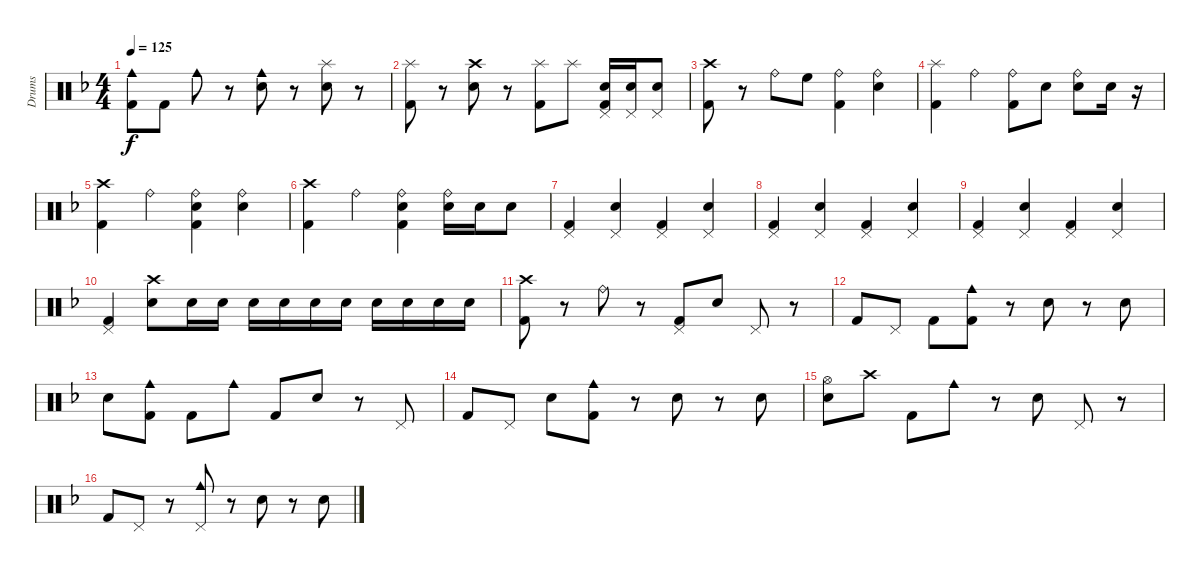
\track ("Drums" "Drums") {instrument percussion}
\staff {score}
\articulation defaults
\ts (4 4)
\tempo 125
\clef neutral
\ks f
("Cowbell medium (hit)" "Kick (hit) 2").8{dy f} "Kick (hit) 2".8 "Cowbell medium (hit)".8 r.8 ("Cowbell medium (hit)" "Electric Snare (hit)").8 r.8 ("Splash (hit)" "Electric Snare (hit)").8 r.8 |
("Splash (hit)" "Kick (hit) 2").8 r.8 ("Crash high (hit)" "Electric Snare (hit)").8 r.8 ("Splash (hit)" "Kick (hit) 2").8 "Splash (hit)".8 ("Pedal Hi-Hat (hit)" "Electric Snare (hit)" "Kick (hit) 2").16 ("Pedal Hi-Hat (hit)" "Electric Snare (hit)").16 ("Pedal Hi-Hat (hit)" "Electric Snare (hit)").8 |
("Crash high (hit)" "Kick (hit) 2").8 r.8 "Ride (bell)".8 "High Floor Tom (hit)".8 ("Ride (bell)" "Kick (hit) 2").4 ("Ride (bell)" "Electric Snare (hit)").4 |
("Splash (hit)" "Kick (hit) 2").4 "Ride (bell)".4 ("Ride (bell)" "Kick (hit) 2").8 "Electric Snare (hit)".8 ("Ride (bell)" "Electric Snare (hit)").8 "Electric Snare (hit)".16 r.16 |
("Crash high (hit)" "Kick (hit) 2").4 "Ride (bell)".4 ("Ride (bell)" "Electric Snare (hit)" "Kick (hit) 2").4 ("Ride (bell)" "Electric Snare (hit)").4 |
("Crash high (hit)" "Kick (hit) 2").4 "Ride (bell)".4 ("Ride (bell)" "Electric Snare (hit)" "Kick (hit) 2").4 ("Ride (bell)" "Electric Snare (hit)").16 "Electric Snare (hit)".16 "Electric Snare (hit)".8 |
("Pedal Hi-Hat (hit)" "Kick (hit) 2").4 ("Pedal Hi-Hat (hit)" "Electric Snare (hit)").4 ("Pedal Hi-Hat (hit)" "Kick (hit) 2").4 ("Pedal Hi-Hat (hit)" "Electric Snare (hit)").4 |
("Pedal Hi-Hat (hit)" "Kick (hit) 2").4 ("Pedal Hi-Hat (hit)" "Electric Snare (hit)").4 ("Pedal Hi-Hat (hit)" "Kick (hit) 2").4 ("Pedal Hi-Hat (hit)" "Electric Snare (hit)").4 |
("Pedal Hi-Hat (hit)" "Kick (hit) 2").4 ("Pedal Hi-Hat (hit)" "Electric Snare (hit)").4 ("Pedal Hi-Hat (hit)" "Kick (hit) 2").4 ("Pedal Hi-Hat (hit)" "Electric Snare (hit)").4 |
("Pedal Hi-Hat (hit)" "Kick (hit) 2").4 ("Crash high (hit)" "Electric Snare (hit)").8 "Electric Snare (hit)".16 "Electric Snare (hit)".16 "Electric Snare (hit)".16 "Electric Snare (hit)".16 "Electric Snare (hit)".16 "Electric Snare (hit)".16 "Electric Snare (hit)".16 "Electric Snare (hit)".16 "Electric Snare (hit)".16 "Electric Snare (hit)".16 |
("Crash high (hit)" "Kick (hit) 2").8 r.8 "Ride (bell)".8 r.8 ("Pedal Hi-Hat (hit)" "Kick (hit) 2").8 "Electric Snare (hit)".8 "Pedal Hi-Hat (hit)".8 r.8 |
"Kick (hit) 2".8 "Pedal Hi-Hat (hit)".8 "Kick (hit) 2".8 ("Cowbell medium (hit)" "Kick (hit) 2").8 r.8 "Electric Snare (hit)".8 r.8 "Electric Snare (hit)".8 |
"Electric Snare (hit)".8 ("Cowbell medium (hit)" "Kick (hit) 2").8 "Kick (hit) 2".8 "Cowbell medium (hit)".8 "Kick (hit) 2".8 "Electric Snare (hit)".8 r.8 "Pedal Hi-Hat (hit)".8 |
"Kick (hit) 2".8 "Pedal Hi-Hat (hit)".8 "Electric Snare (hit)".8 ("Cowbell medium (hit)" "Kick (hit) 2").8 r.8 "Electric Snare (hit)".8 r.8 "Electric Snare (hit)".8 |
("Hi-Hat (open)" "Electric Snare (hit)").8 "Crash high (hit)".8 "Kick (hit) 2".8 "Cowbell medium (hit)".8 r.8 "Electric Snare (hit)".8 "Pedal Hi-Hat (hit)".8 r.8 |
"Kick (hit) 2".8 "Pedal Hi-Hat (hit)".8 r.8 ("Cowbell medium (hit)" "Pedal Hi-Hat (hit)").8 r.8 "Electric Snare (hit)".8 r.8 "Electric Snare (hit)".8
